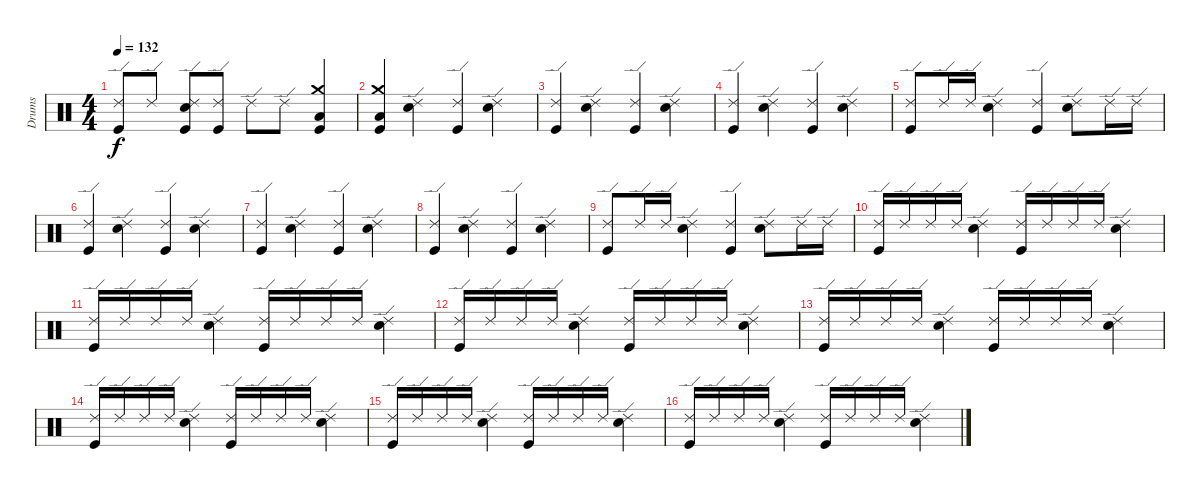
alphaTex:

\track ("Drums" "Drums") {instrument percussion}
\staff {score}
\articulation defaults
\ts (4 4)
\tempo 132
\clef neutral
\ks c
("Ride (edge) 2" "Kick (hit)").8{dy f} "Ride (edge) 2".8 ("Ride (edge) 2" "Snare (hit) 2" "Kick (hit)").8 ("Ride (edge) 2" "Kick (hit)").8 "Ride (edge) 2".8 "Ride (edge) 2".8 ("Crash medium (hit)" "Low Floor Tom (hit)" "Kick (hit)").4 |
("Crash medium (hit)" "Low Floor Tom (hit)" "Kick (hit)").4 ("Ride (edge) 2" "Snare (hit) 2").4 ("Ride (edge) 2" "Kick (hit)").4 ("Ride (edge) 2" "Snare (hit) 2").4 |
("Ride (edge) 2" "Kick (hit)").4 ("Ride (edge) 2" "Snare (hit) 2").4 ("Ride (edge) 2" "Kick (hit)").4 ("Ride (edge) 2" "Snare (hit) 2").4 |
("Ride (edge) 2" "Kick (hit)").4 ("Ride (edge) 2" "Snare (hit) 2").4 ("Ride (edge) 2" "Kick (hit)").4 ("Ride (edge) 2" "Snare (hit) 2").4 |
("Ride (edge) 2" "Kick (hit)").8 "Ride (edge) 2".16 "Ride (edge) 2".16 ("Ride (edge) 2" "Snare (hit) 2").4 ("Ride (edge) 2" "Kick (hit)").4 ("Ride (edge) 2" "Snare (hit) 2").8 "Ride (edge) 2".16 "Ride (edge) 2".16 |
("Ride (edge) 2" "Kick (hit)").4 ("Ride (edge) 2" "Snare (hit) 2").4 ("Ride (edge) 2" "Kick (hit)").4 ("Ride (edge) 2" "Snare (hit) 2").4 |
("Ride (edge) 2" "Kick (hit)").4 ("Ride (edge) 2" "Snare (hit) 2").4 ("Ride (edge) 2" "Kick (hit)").4 ("Ride (edge) 2" "Snare (hit) 2").4 |
("Ride (edge) 2" "Kick (hit)").4 ("Ride (edge) 2" "Snare (hit) 2").4 ("Ride (edge) 2" "Kick (hit)").4 ("Ride (edge) 2" "Snare (hit) 2").4 |
("Ride (edge) 2" "Kick (hit)").8 "Ride (edge) 2".16 "Ride (edge) 2".16 ("Ride (edge) 2" "Snare (hit) 2").4 ("Ride (edge) 2" "Kick (hit)").4 ("Ride (edge) 2" "Snare (hit) 2").8 "Ride (edge) 2".16 "Ride (edge) 2".16 |
("Ride (edge) 2" "Kick (hit)").16 "Ride (edge) 2".16 "Ride (edge) 2".16 "Ride (edge) 2".16 ("Ride (edge) 2" "Snare (hit) 2").4 ("Ride (edge) 2" "Kick (hit)").16 "Ride (edge) 2".16 "Ride (edge) 2".16 "Ride (edge) 2".16 ("Ride (edge) 2" "Snare (hit) 2").4 |
("Ride (edge) 2" "Kick (hit)").16 "Ride (edge) 2".16 "Ride (edge) 2".16 "Ride (edge) 2".16 ("Ride (edge) 2" "Snare (hit) 2").4 ("Ride (edge) 2" "Kick (hit)").16 "Ride (edge) 2".16 "Ride (edge) 2".16 "Ride (edge) 2".16 ("Ride (edge) 2" "Snare (hit) 2").4 |
("Ride (edge) 2" "Kick (hit)").16 "Ride (edge) 2".16 "Ride (edge) 2".16 "Ride (edge) 2".16 ("Ride (edge) 2" "Snare (hit) 2").4 ("Ride (edge) 2" "Kick (hit)").16 "Ride (edge) 2".16 "Ride (edge) 2".16 "Ride (edge) 2".16 ("Ride (edge) 2" "Snare (hit) 2").4 |
("Ride (edge) 2" "Kick (hit)").16 "Ride (edge) 2".16 "Ride (edge) 2".16 "Ride (edge) 2".16 ("Ride (edge) 2" "Snare (hit) 2").4 ("Ride (edge) 2" "Kick (hit)").16 "Ride (edge) 2".16 "Ride (edge) 2".16 "Ride (edge) 2".16 ("Ride (edge) 2" "Snare (hit) 2").4 |
("Ride (edge) 2" "Kick (hit)").16 "Ride (edge) 2".16 "Ride (edge) 2".16 "Ride (edge) 2".16 ("Ride (edge) 2" "Snare (hit) 2").4 ("Ride (edge) 2" "Kick (hit)").16 "Ride (edge) 2".16 "Ride (edge) 2".16 "Ride (edge) 2".16 ("Ride (edge) 2" "Snare (hit) 2").4 |
("Ride (edge) 2" "Kick (hit)").16 "Ride (edge) 2".16 "Ride (edge) 2".16 "Ride (edge) 2".16 ("Ride (edge) 2" "Snare (hit) 2").4 ("Ride (edge) 2" "Kick (hit)").16 "Ride (edge) 2".16 "Ride (edge) 2".16 "Ride (edge) 2".16 ("Ride (edge) 2" "Snare (hit) 2").4 |
("Ride (edge) 2" "Kick (hit)").16 "Ride (edge) 2".16 "Ride (edge) 2".16 "Ride (edge) 2".16 ("Ride (edge) 2" "Snare (hit) 2").4 ("Ride (edge) 2" "Kick (hit)").16 "Ride (edge) 2".16 "Ride (edge) 2".16 "Ride (edge) 2".16 ("Ride (edge) 2" "Snare (hit) 2").4
